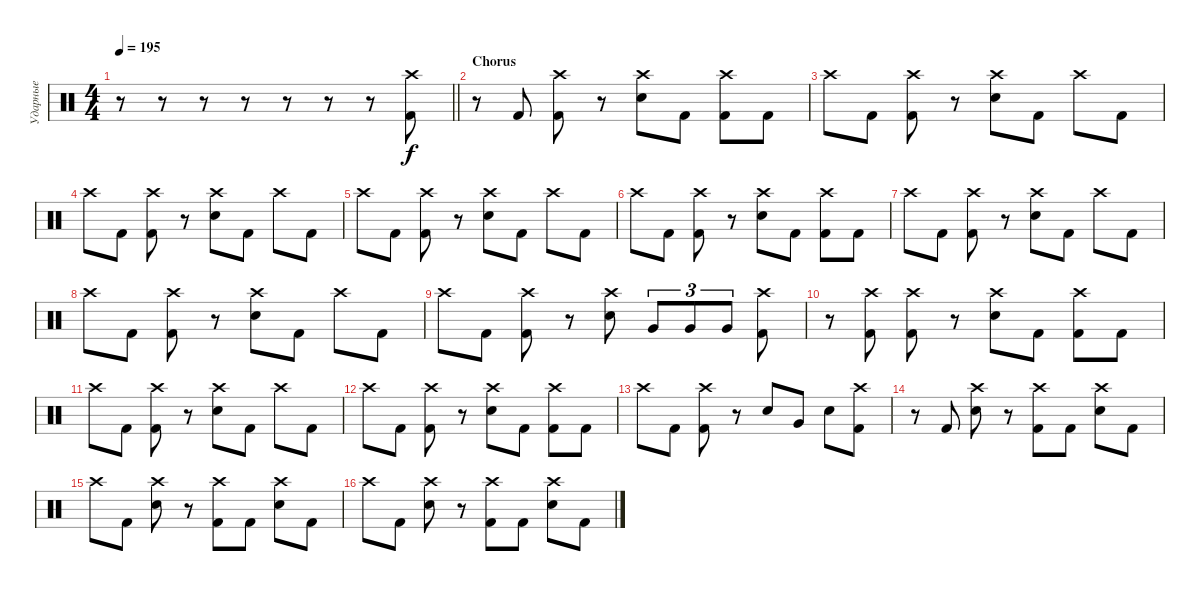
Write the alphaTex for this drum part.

\track ("Ударные" "Ударные") {instrument percussion}
\staff {score}
\articulation defaults
\ts (4 4)
\tempo 195
\clef neutral
\barLineRight lightlight
\ks c
r.8{dy f} r.8 r.8 r.8 r.8 r.8 r.8 ("Crash high (hit)" "Kick (hit) 2").8 |
\section ("" "Chorus")
r.8 "Kick (hit) 2".8 ("Crash high (hit)" "Kick (hit) 2").8 r.8 ("Crash high (hit)" "Electric Snare (hit)").8 "Kick (hit) 2".8 ("Crash high (hit)" "Kick (hit) 2").8 "Kick (hit) 2".8 |
"Crash high (hit)".8 "Kick (hit) 2".8 ("Crash high (hit)" "Kick (hit) 2").8 r.8 ("Crash high (hit)" "Electric Snare (hit)").8 "Kick (hit) 2".8 "Crash high (hit)".8 "Kick (hit) 2".8 |
"Crash high (hit)".8 "Kick (hit) 2".8 ("Crash high (hit)" "Kick (hit) 2").8 r.8 ("Crash high (hit)" "Electric Snare (hit)").8 "Kick (hit) 2".8 "Crash high (hit)".8 "Kick (hit) 2".8 |
"Crash high (hit)".8 "Kick (hit) 2".8 ("Crash high (hit)" "Kick (hit) 2").8 r.8 ("Crash high (hit)" "Electric Snare (hit)").8 "Kick (hit) 2".8 "Crash high (hit)".8 "Kick (hit) 2".8 |
"Crash high (hit)".8 "Kick (hit) 2".8 ("Crash high (hit)" "Kick (hit) 2").8 r.8 ("Crash high (hit)" "Electric Snare (hit)").8 "Kick (hit) 2".8 ("Crash high (hit)" "Kick (hit) 2").8 "Kick (hit) 2".8 |
"Crash high (hit)".8 "Kick (hit) 2".8 ("Crash high (hit)" "Kick (hit) 2").8 r.8 ("Crash high (hit)" "Electric Snare (hit)").8 "Kick (hit) 2".8 "Crash high (hit)".8 "Kick (hit) 2".8 |
"Crash high (hit)".8 "Kick (hit) 2".8 ("Crash high (hit)" "Kick (hit) 2").8 r.8 ("Crash high (hit)" "Electric Snare (hit)").8 "Kick (hit) 2".8 "Crash high (hit)".8 "Kick (hit) 2".8 |
"Crash high (hit)".8 "Kick (hit) 2".8 ("Crash high (hit)" "Kick (hit) 2").8 r.8 ("Crash high (hit)" "Electric Snare (hit)").8 "Very Low Tom (hit)".8{tu (3 2)} "Very Low Tom (hit)".8{tu (3 2)} "Very Low Tom (hit)".8{tu (3 2)} ("Crash high (hit)" "Kick (hit) 2").8 |
r.8 ("Crash high (hit)" "Kick (hit) 2").8 ("Crash high (hit)" "Kick (hit) 2").8 r.8 ("Crash high (hit)" "Electric Snare (hit)").8 "Kick (hit) 2".8 ("Crash high (hit)" "Kick (hit) 2").8 "Kick (hit) 2".8 |
"Crash high (hit)".8 "Kick (hit) 2".8 ("Crash high (hit)" "Kick (hit) 2").8 r.8 ("Crash high (hit)" "Electric Snare (hit)").8 "Kick (hit) 2".8 "Crash high (hit)".8 "Kick (hit) 2".8 |
"Crash high (hit)".8 "Kick (hit) 2".8 ("Crash high (hit)" "Kick (hit) 2").8 r.8 ("Crash high (hit)" "Electric Snare (hit)").8 "Kick (hit) 2".8 ("Crash high (hit)" "Kick (hit) 2").8 "Kick (hit) 2".8 |
"Crash high (hit)".8 "Kick (hit) 2".8 ("Crash high (hit)" "Kick (hit) 2").8 r.8 "Electric Snare (hit)".8 "Very Low Tom (hit)".8 "Electric Snare (hit)".8 ("Crash high (hit)" "Kick (hit) 2").8 |
r.8 "Kick (hit) 2".8 ("Crash high (hit)" "Electric Snare (hit)").8 r.8 ("Crash high (hit)" "Kick (hit) 2").8 "Kick (hit) 2".8 ("Crash high (hit)" "Electric Snare (hit)").8 "Kick (hit) 2".8 |
"Crash high (hit)".8 "Kick (hit) 2".8 ("Crash high (hit)" "Electric Snare (hit)").8 r.8 ("Crash high (hit)" "Kick (hit) 2").8 "Kick (hit) 2".8 ("Crash high (hit)" "Electric Snare (hit)").8 "Kick (hit) 2".8 |
"Crash high (hit)".8 "Kick (hit) 2".8 ("Crash high (hit)" "Electric Snare (hit)").8 r.8 ("Crash high (hit)" "Kick (hit) 2").8 "Kick (hit) 2".8 ("Crash high (hit)" "Electric Snare (hit)").8 "Kick (hit) 2".8
